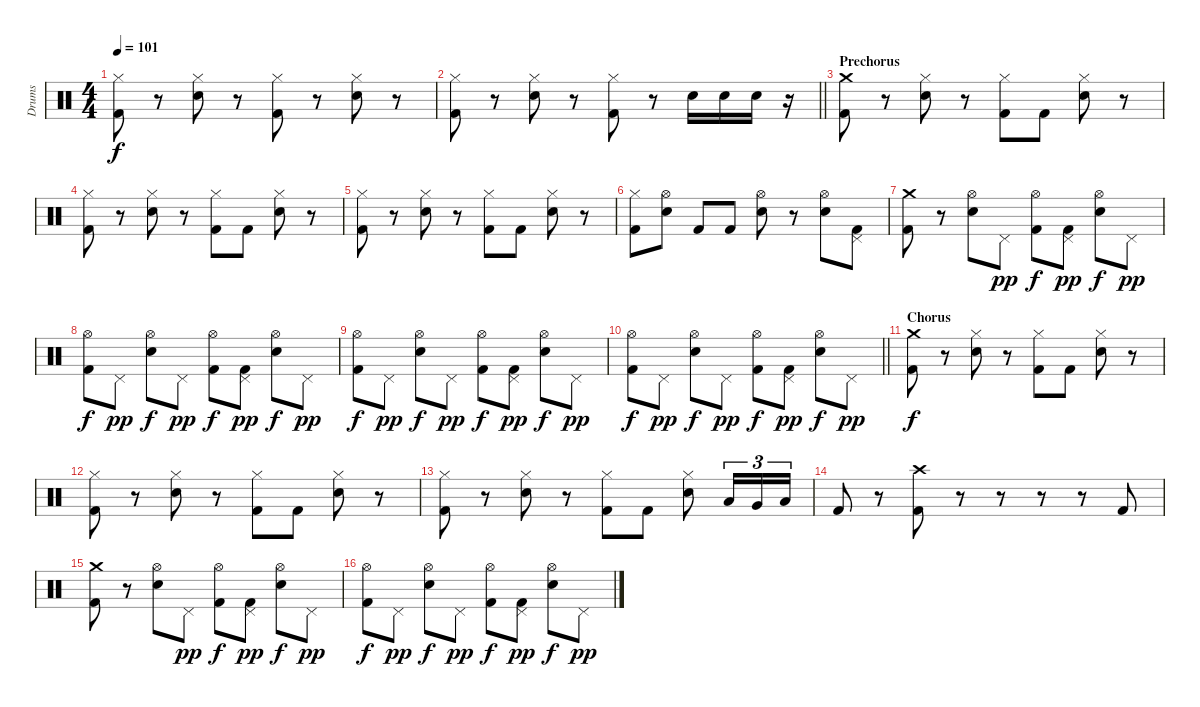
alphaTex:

\track ("Drums" "Drums") {instrument percussion}
\staff {score}
\articulation defaults
\ts (4 4)
\tempo 101
\clef neutral
\ks c
("Hi-Hat (closed)" "Kick (hit) 2").8{dy f} r.8 ("Hi-Hat (closed)" "Snare (hit) 2").8 r.8 ("Hi-Hat (closed)" "Kick (hit) 2").8 r.8 ("Hi-Hat (closed)" "Snare (hit) 2").8 r.8 |
\barLineRight lightlight
("Hi-Hat (closed)" "Kick (hit) 2").8 r.8 ("Hi-Hat (closed)" "Snare (hit) 2").8 r.8 ("Hi-Hat (closed)" "Kick (hit) 2").8 r.8 "Snare (hit) 2".16 "Snare (hit) 2".16 "Snare (hit) 2".16 r.16 |
\section ("" "Prechorus")
("Crash medium (hit)" "Kick (hit) 2").8 r.8 ("Hi-Hat (closed)" "Snare (hit) 2").8 r.8 ("Hi-Hat (closed)" "Kick (hit) 2").8 "Kick (hit) 2".8 ("Hi-Hat (closed)" "Snare (hit) 2").8 r.8 |
("Hi-Hat (closed)" "Kick (hit) 2").8 r.8 ("Hi-Hat (closed)" "Snare (hit) 2").8 r.8 ("Hi-Hat (closed)" "Kick (hit) 2").8 "Kick (hit) 2".8 ("Hi-Hat (closed)" "Snare (hit) 2").8 r.8 |
("Hi-Hat (closed)" "Kick (hit) 2").8 r.8 ("Hi-Hat (closed)" "Snare (hit) 2").8 r.8 ("Hi-Hat (closed)" "Kick (hit) 2").8 "Kick (hit) 2".8 ("Hi-Hat (closed)" "Snare (hit) 2").8 r.8 |
("Hi-Hat (closed)" "Kick (hit) 2").8 ("Hi-Hat (open)" "Snare (hit) 2").8 "Kick (hit) 2".8 "Kick (hit) 2".8 ("Hi-Hat (open)" "Snare (hit) 2").8 r.8 ("Hi-Hat (open)" "Snare (hit) 2").8 ("Pedal Hi-Hat (hit)" "Kick (hit) 2").8 |
("Crash medium (hit)" "Kick (hit) 2").8 r.8 ("Hi-Hat (open)" "Snare (hit) 2").8 "Pedal Hi-Hat (hit)".8{dy pp} ("Hi-Hat (open)" "Kick (hit) 2").8{dy f} ("Pedal Hi-Hat (hit)" "Kick (hit) 2").8{dy pp} ("Hi-Hat (open)" "Snare (hit) 2").8{dy f} "Pedal Hi-Hat (hit)".8{dy pp} |
("Hi-Hat (open)" "Kick (hit) 2").8{dy f} "Pedal Hi-Hat (hit)".8{dy pp} ("Hi-Hat (open)" "Snare (hit) 2").8{dy f} "Pedal Hi-Hat (hit)".8{dy pp} ("Hi-Hat (open)" "Kick (hit) 2").8{dy f} ("Pedal Hi-Hat (hit)" "Kick (hit) 2").8{dy pp} ("Hi-Hat (open)" "Snare (hit) 2").8{dy f} "Pedal Hi-Hat (hit)".8{dy pp} |
("Hi-Hat (open)" "Kick (hit) 2").8{dy f} "Pedal Hi-Hat (hit)".8{dy pp} ("Hi-Hat (open)" "Snare (hit) 2").8{dy f} "Pedal Hi-Hat (hit)".8{dy pp} ("Hi-Hat (open)" "Kick (hit) 2").8{dy f} ("Pedal Hi-Hat (hit)" "Kick (hit) 2").8{dy pp} ("Hi-Hat (open)" "Snare (hit) 2").8{dy f} "Pedal Hi-Hat (hit)".8{dy pp} |
\barLineRight lightlight
("Hi-Hat (open)" "Kick (hit) 2").8{dy f} "Pedal Hi-Hat (hit)".8{dy pp} ("Hi-Hat (open)" "Snare (hit) 2").8{dy f} "Pedal Hi-Hat (hit)".8{dy pp} ("Hi-Hat (open)" "Kick (hit) 2").8{dy f} ("Pedal Hi-Hat (hit)" "Kick (hit) 2").8{dy pp} ("Hi-Hat (open)" "Snare (hit) 2").8{dy f} "Pedal Hi-Hat (hit)".8{dy pp} |
\section ("" "Chorus")
("Crash medium (hit)" "Kick (hit) 2").8{dy f} r.8 ("Hi-Hat (closed)" "Snare (hit) 2").8 r.8 ("Hi-Hat (closed)" "Kick (hit) 2").8 "Kick (hit) 2".8 ("Hi-Hat (closed)" "Snare (hit) 2").8 r.8 |
("Hi-Hat (closed)" "Kick (hit) 2").8 r.8 ("Hi-Hat (closed)" "Snare (hit) 2").8 r.8 ("Hi-Hat (closed)" "Kick (hit) 2").8 "Kick (hit) 2".8 ("Hi-Hat (closed)" "Snare (hit) 2").8 r.8 |
("Hi-Hat (closed)" "Kick (hit) 2").8 r.8 ("Hi-Hat (closed)" "Snare (hit) 2").8 r.8 ("Hi-Hat (closed)" "Kick (hit) 2").8 "Kick (hit) 2".8 ("Hi-Hat (closed)" "Snare (hit) 2").8 "Low Tom (hit)".16{tu (3 2)} "Very Low Tom (hit)".16{tu (3 2)} "Low Floor Tom (hit)".16{tu (3 2)} |
"Kick (hit) 2".8 r.8 ("Crash high (hit)" "Kick (hit) 2").8 r.8 r.8 r.8 r.8 "Kick (hit) 2".8 |
("Crash medium (hit)" "Kick (hit) 2").8 r.8 ("Hi-Hat (open)" "Snare (hit) 2").8 "Pedal Hi-Hat (hit)".8{dy pp} ("Hi-Hat (open)" "Kick (hit) 2").8{dy f} ("Pedal Hi-Hat (hit)" "Kick (hit) 2").8{dy pp} ("Hi-Hat (open)" "Snare (hit) 2").8{dy f} "Pedal Hi-Hat (hit)".8{dy pp} |
("Hi-Hat (open)" "Kick (hit) 2").8{dy f} "Pedal Hi-Hat (hit)".8{dy pp} ("Hi-Hat (open)" "Snare (hit) 2").8{dy f} "Pedal Hi-Hat (hit)".8{dy pp} ("Hi-Hat (open)" "Kick (hit) 2").8{dy f} ("Pedal Hi-Hat (hit)" "Kick (hit) 2").8{dy pp} ("Hi-Hat (open)" "Snare (hit) 2").8{dy f} "Pedal Hi-Hat (hit)".8{dy pp}
